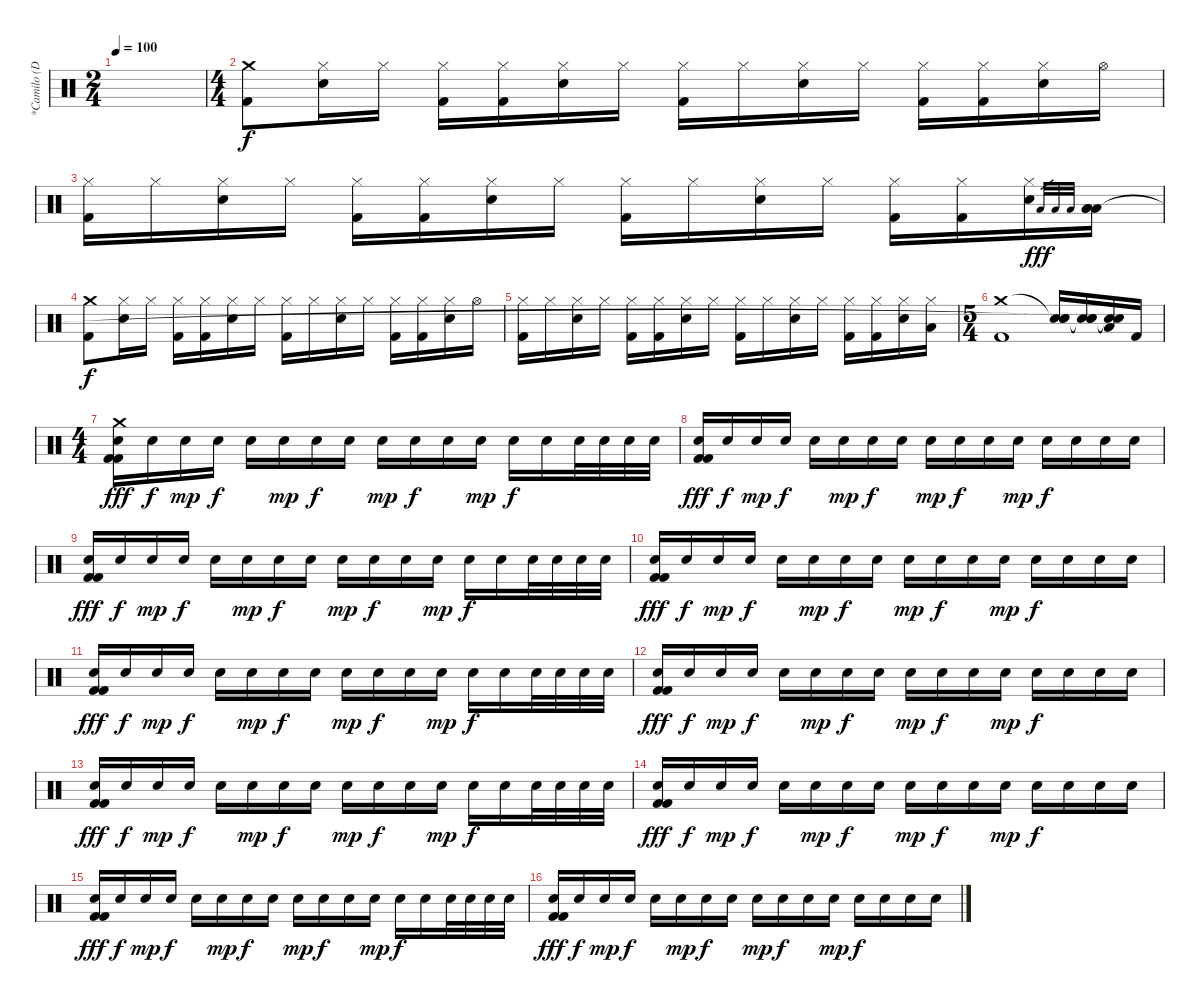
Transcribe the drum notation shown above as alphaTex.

\track ("*Camilo (Drums)" "*Camilo (D") {instrument percussion}
\staff {score}
\articulation defaults
\ts (2 4)
\tempo 100
\clef neutral
\ks c
|
\ts (4 4)
("Crash medium (hit)" "Kick (hit) 2").8 ("Hi-Hat (closed)" "Electric Snare (hit)").16 "Hi-Hat (closed)".16 ("Hi-Hat (closed)" "Kick (hit) 2").16 ("Hi-Hat (closed)" "Kick (hit) 2").16 ("Hi-Hat (closed)" "Electric Snare (hit)").16 "Hi-Hat (closed)".16 ("Hi-Hat (closed)" "Kick (hit) 2").16 "Hi-Hat (closed)".16 ("Hi-Hat (closed)" "Electric Snare (hit)").16 "Hi-Hat (closed)".16 ("Hi-Hat (closed)" "Kick (hit) 2").16 ("Hi-Hat (closed)" "Kick (hit) 2").16 ("Hi-Hat (closed)" "Electric Snare (hit)").16 "Hi-Hat (open)".16 |
("Hi-Hat (closed)" "Kick (hit) 2").16 "Hi-Hat (closed)".16 ("Hi-Hat (closed)" "Electric Snare (hit)").16 "Hi-Hat (closed)".16 ("Hi-Hat (closed)" "Kick (hit) 2").16 ("Hi-Hat (closed)" "Kick (hit) 2").16 ("Hi-Hat (closed)" "Electric Snare (hit)").16 "Hi-Hat (closed)".16 ("Hi-Hat (closed)" "Kick (hit) 2").16 "Hi-Hat (closed)".16 ("Hi-Hat (closed)" "Electric Snare (hit)").16 "Hi-Hat (closed)".16 ("Hi-Hat (closed)" "Kick (hit) 2").16 ("Hi-Hat (closed)" "Kick (hit) 2").16 ("Hi-Hat (closed)" "Electric Snare (hit)").16 "Low Tom (hit)".32{gr dy fff} "Low Tom (hit)".32{gr} "Low Tom (hit)".32{gr} ("Low Tom (hit)" "Low Tom (hit)" "Low Tom (hit)").16 |
("Crash medium (hit)" "Kick (hit) 2").8{dy f} ("Hi-Hat (closed)" "Electric Snare (hit)").16 "Hi-Hat (closed)".16 ("Hi-Hat (closed)" "Kick (hit) 2").16 ("Hi-Hat (closed)" "Kick (hit) 2").16 ("Hi-Hat (closed)" "Electric Snare (hit)").16 "Hi-Hat (closed)".16 ("Hi-Hat (closed)" "Kick (hit) 2").16 "Hi-Hat (closed)".16 ("Hi-Hat (closed)" "Electric Snare (hit)").16 "Hi-Hat (closed)".16 ("Hi-Hat (closed)" "Kick (hit) 2").16 ("Hi-Hat (closed)" "Kick (hit) 2").16 ("Hi-Hat (closed)" "Electric Snare (hit)").16 "Hi-Hat (open)".16 |
("Hi-Hat (closed)" "Kick (hit) 2").16 "Hi-Hat (closed)".16 ("Hi-Hat (closed)" "Electric Snare (hit)").16 "Hi-Hat (closed)".16 ("Hi-Hat (closed)" "Kick (hit) 2").16 ("Hi-Hat (closed)" "Kick (hit) 2").16 ("Hi-Hat (closed)" "Electric Snare (hit)").16 "Hi-Hat (closed)".16 ("Hi-Hat (closed)" "Kick (hit) 2").16 "Hi-Hat (closed)".16 ("Hi-Hat (closed)" "Electric Snare (hit)").16 "Hi-Hat (closed)".16 ("Hi-Hat (closed)" "Kick (hit) 2").16 ("Hi-Hat (closed)" "Kick (hit) 2").16 ("Hi-Hat (closed)" "Electric Snare (hit)").16 ("Hi-Hat (closed)" "Low Tom (hit)").16 |
\ts (5 4)
("Crash medium (hit)" "Kick (hit) 2").1 ("Snare (hit)"{t} "Electric Snare (hit)" "Snare (hit)"{t}).16 ("Snare (hit)"{t} "Electric Snare (hit)" "Snare (hit)"{t}).16 ("Snare (hit)"{t} "Low Tom (hit)" "Snare (hit)"{t}).16 "Kick (hit) 2".16 |
\ts (4 4)
("Crash medium (hit)" "Electric Snare (hit)" "Kick (hit) 2" "Kick (hit) 2").16{dy fff} "Electric Snare (hit)".16{dy f} "Electric Snare (hit)".16{dy mp} "Electric Snare (hit)".16{dy f} "Electric Snare (hit)".16 "Electric Snare (hit)".16{dy mp} "Electric Snare (hit)".16{dy f} "Electric Snare (hit)".16 "Electric Snare (hit)".16{dy mp} "Electric Snare (hit)".16{dy f} "Electric Snare (hit)".16 "Electric Snare (hit)".16{dy mp} "Electric Snare (hit)".16{dy f} "Electric Snare (hit)".16 "Electric Snare (hit)".32 "Electric Snare (hit)".32 "Electric Snare (hit)".32 "Electric Snare (hit)".32 |
("Electric Snare (hit)" "Kick (hit) 2" "Kick (hit) 2").16{dy fff} "Electric Snare (hit)".16{dy f} "Electric Snare (hit)".16{dy mp} "Electric Snare (hit)".16{dy f} "Electric Snare (hit)".16 "Electric Snare (hit)".16{dy mp} "Electric Snare (hit)".16{dy f} "Electric Snare (hit)".16 "Electric Snare (hit)".16{dy mp} "Electric Snare (hit)".16{dy f} "Electric Snare (hit)".16 "Electric Snare (hit)".16{dy mp} "Electric Snare (hit)".16{dy f} "Electric Snare (hit)".16 "Electric Snare (hit)".16 "Electric Snare (hit)".16 |
("Electric Snare (hit)" "Kick (hit) 2" "Kick (hit) 2").16{dy fff} "Electric Snare (hit)".16{dy f} "Electric Snare (hit)".16{dy mp} "Electric Snare (hit)".16{dy f} "Electric Snare (hit)".16 "Electric Snare (hit)".16{dy mp} "Electric Snare (hit)".16{dy f} "Electric Snare (hit)".16 "Electric Snare (hit)".16{dy mp} "Electric Snare (hit)".16{dy f} "Electric Snare (hit)".16 "Electric Snare (hit)".16{dy mp} "Electric Snare (hit)".16{dy f} "Electric Snare (hit)".16 "Electric Snare (hit)".32 "Electric Snare (hit)".32 "Electric Snare (hit)".32 "Electric Snare (hit)".32 |
("Electric Snare (hit)" "Kick (hit) 2" "Kick (hit) 2").16{dy fff} "Electric Snare (hit)".16{dy f} "Electric Snare (hit)".16{dy mp} "Electric Snare (hit)".16{dy f} "Electric Snare (hit)".16 "Electric Snare (hit)".16{dy mp} "Electric Snare (hit)".16{dy f} "Electric Snare (hit)".16 "Electric Snare (hit)".16{dy mp} "Electric Snare (hit)".16{dy f} "Electric Snare (hit)".16 "Electric Snare (hit)".16{dy mp} "Electric Snare (hit)".16{dy f} "Electric Snare (hit)".16 "Electric Snare (hit)".16 "Electric Snare (hit)".16 |
("Electric Snare (hit)" "Kick (hit) 2" "Kick (hit) 2").16{dy fff} "Electric Snare (hit)".16{dy f} "Electric Snare (hit)".16{dy mp} "Electric Snare (hit)".16{dy f} "Electric Snare (hit)".16 "Electric Snare (hit)".16{dy mp} "Electric Snare (hit)".16{dy f} "Electric Snare (hit)".16 "Electric Snare (hit)".16{dy mp} "Electric Snare (hit)".16{dy f} "Electric Snare (hit)".16 "Electric Snare (hit)".16{dy mp} "Electric Snare (hit)".16{dy f} "Electric Snare (hit)".16 "Electric Snare (hit)".32 "Electric Snare (hit)".32 "Electric Snare (hit)".32 "Electric Snare (hit)".32 |
("Electric Snare (hit)" "Kick (hit) 2" "Kick (hit) 2").16{dy fff} "Electric Snare (hit)".16{dy f} "Electric Snare (hit)".16{dy mp} "Electric Snare (hit)".16{dy f} "Electric Snare (hit)".16 "Electric Snare (hit)".16{dy mp} "Electric Snare (hit)".16{dy f} "Electric Snare (hit)".16 "Electric Snare (hit)".16{dy mp} "Electric Snare (hit)".16{dy f} "Electric Snare (hit)".16 "Electric Snare (hit)".16{dy mp} "Electric Snare (hit)".16{dy f} "Electric Snare (hit)".16 "Electric Snare (hit)".16 "Electric Snare (hit)".16 |
("Electric Snare (hit)" "Kick (hit) 2" "Kick (hit) 2").16{dy fff} "Electric Snare (hit)".16{dy f} "Electric Snare (hit)".16{dy mp} "Electric Snare (hit)".16{dy f} "Electric Snare (hit)".16 "Electric Snare (hit)".16{dy mp} "Electric Snare (hit)".16{dy f} "Electric Snare (hit)".16 "Electric Snare (hit)".16{dy mp} "Electric Snare (hit)".16{dy f} "Electric Snare (hit)".16 "Electric Snare (hit)".16{dy mp} "Electric Snare (hit)".16{dy f} "Electric Snare (hit)".16 "Electric Snare (hit)".32 "Electric Snare (hit)".32 "Electric Snare (hit)".32 "Electric Snare (hit)".32 |
("Electric Snare (hit)" "Kick (hit) 2" "Kick (hit) 2").16{dy fff} "Electric Snare (hit)".16{dy f} "Electric Snare (hit)".16{dy mp} "Electric Snare (hit)".16{dy f} "Electric Snare (hit)".16 "Electric Snare (hit)".16{dy mp} "Electric Snare (hit)".16{dy f} "Electric Snare (hit)".16 "Electric Snare (hit)".16{dy mp} "Electric Snare (hit)".16{dy f} "Electric Snare (hit)".16 "Electric Snare (hit)".16{dy mp} "Electric Snare (hit)".16{dy f} "Electric Snare (hit)".16 "Electric Snare (hit)".16 "Electric Snare (hit)".16 |
("Electric Snare (hit)" "Kick (hit) 2" "Kick (hit) 2").16{dy fff} "Electric Snare (hit)".16{dy f} "Electric Snare (hit)".16{dy mp} "Electric Snare (hit)".16{dy f} "Electric Snare (hit)".16 "Electric Snare (hit)".16{dy mp} "Electric Snare (hit)".16{dy f} "Electric Snare (hit)".16 "Electric Snare (hit)".16{dy mp} "Electric Snare (hit)".16{dy f} "Electric Snare (hit)".16 "Electric Snare (hit)".16{dy mp} "Electric Snare (hit)".16{dy f} "Electric Snare (hit)".16 "Electric Snare (hit)".32 "Electric Snare (hit)".32 "Electric Snare (hit)".32 "Electric Snare (hit)".32 |
("Electric Snare (hit)" "Kick (hit) 2" "Kick (hit) 2").16{dy fff} "Electric Snare (hit)".16{dy f} "Electric Snare (hit)".16{dy mp} "Electric Snare (hit)".16{dy f} "Electric Snare (hit)".16 "Electric Snare (hit)".16{dy mp} "Electric Snare (hit)".16{dy f} "Electric Snare (hit)".16 "Electric Snare (hit)".16{dy mp} "Electric Snare (hit)".16{dy f} "Electric Snare (hit)".16 "Electric Snare (hit)".16{dy mp} "Electric Snare (hit)".16{dy f} "Electric Snare (hit)".16 "Electric Snare (hit)".16 "Electric Snare (hit)".16
